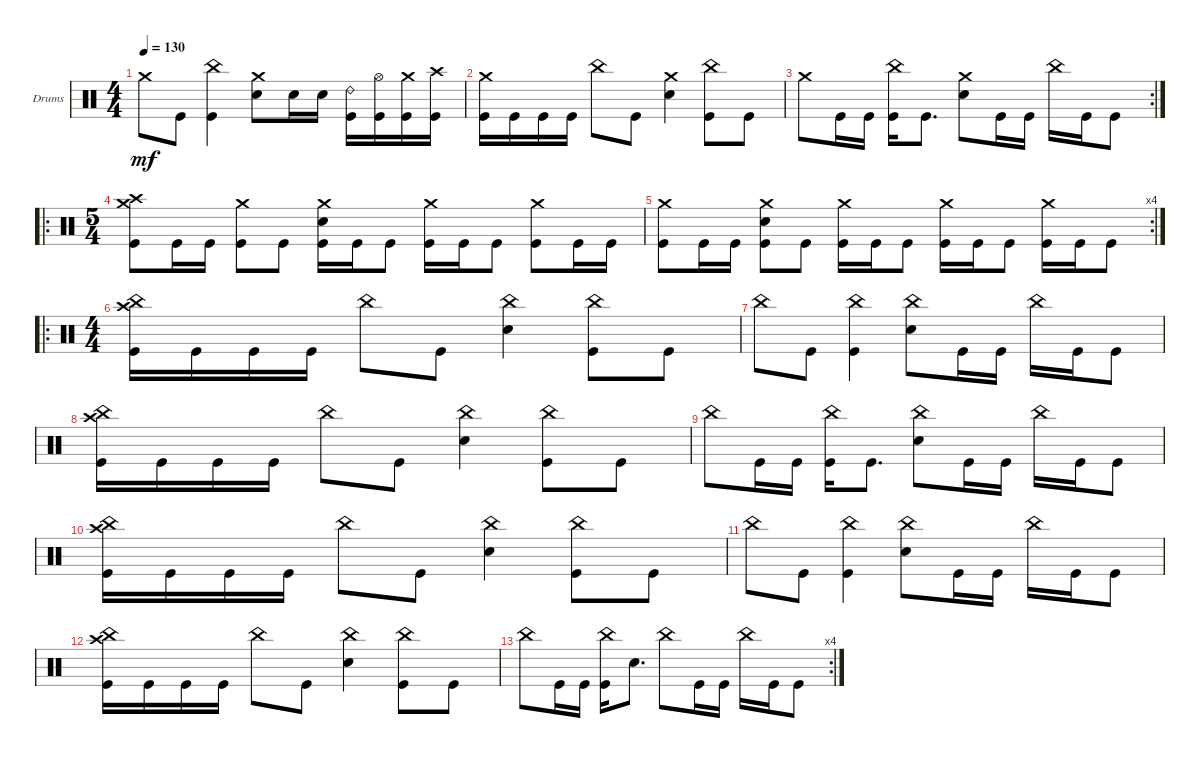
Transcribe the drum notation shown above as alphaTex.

\defaultSystemsLayout 4
\bracketExtendMode groupsimilarinstruments
\firstSystemTrackNameOrientation horizontal
\otherSystemsTrackNameOrientation horizontal
\track ("Drumkit" "Drums") {instrument percussion}
\staff {score}
\articulation defaults
\ts (4 4)
\tempo 130
\clef neutral
\ks c "Crash medium (hit)".8{dy mf} "Kick (hit)".8
("Kick (hit)" "China (hit)").4 ("Snare (hit) 2" "Crash medium (hit)").8 "Snare (hit) 2".16 "Snare (hit) 2".16 ("Ride (bell) 2" "Kick (hit)").16 ("Hi-Hat (open)" "Kick (hit)").16 ("Crash medium (hit)" "Kick (hit)").16 ("Crash high (hit)" "Kick (hit)").16 |
("Kick (hit)" "Crash medium (hit)").16 "Kick (hit)".16 "Kick (hit)".16 "Kick (hit)".16 "China (hit)".8 "Kick (hit)".8 ("Snare (hit) 2" "Crash medium (hit)").4 ("Kick (hit)" "China (hit)").8 "Kick (hit)".8 |
\rc 2 "Crash medium (hit)".8 "Kick (hit)".16 "Kick (hit)".16
("Kick (hit)" "China (hit)").16 "Kick (hit)".8{d} ("Crash medium (hit)" "Snare (hit) 2").8 "Kick (hit)".16 "Kick (hit)".16 "China (hit)".16 "Kick (hit)".16 "Kick (hit)".8 |
\ro
\ts (5 4)
("Kick (hit)" "Crash high (hit)" "Crash medium (hit)").8 "Kick (hit)".16 "Kick (hit)".16 ("Kick (hit)" "Crash medium (hit)").8 "Kick (hit)".8 ("Kick (hit)" "Crash medium (hit)" "Snare (hit) 2").16 "Kick (hit)".16 "Kick (hit)".8 ("Kick (hit)" "Crash medium (hit)").16 "Kick (hit)".16 "Kick (hit)".8 ("Kick (hit)" "Crash medium (hit)").8 "Kick (hit)".16 "Kick (hit)".16 |
\rc 4
("Kick (hit)" "Crash medium (hit)").8 "Kick (hit)".16 "Kick (hit)".16 ("Kick (hit)" "Crash medium (hit)" "Snare (hit) 2").8 "Kick (hit)".8 ("Kick (hit)" "Crash medium (hit)").16 "Kick (hit)".16 "Kick (hit)".8 ("Kick (hit)" "Crash medium (hit)").16 "Kick (hit)".16 "Kick (hit)".8 ("Kick (hit)" "Crash medium (hit)").16 "Kick (hit)".16 "Kick (hit)".8 |
\ro
\ts (4 4)
("China (hit)" "Kick (hit)" "Crash high (hit)").16 "Kick (hit)".16 "Kick (hit)".16 "Kick (hit)".16 "China (hit)".8 "Kick (hit)".8 ("China (hit)" "Snare (hit) 2").4 ("Kick (hit)" "China (hit)").8 "Kick (hit)".8 |
"China (hit)".8 "Kick (hit)".8 ("Kick (hit)" "China (hit)").4 ("China (hit)" "Snare (hit) 2").8 "Kick (hit)".16 "Kick (hit)".16 "China (hit)".16 "Kick (hit)".16 "Kick (hit)".8 |
("Kick (hit)" "China (hit)" "Crash high (hit)").16 "Kick (hit)".16 "Kick (hit)".16 "Kick (hit)".16 "China (hit)".8 "Kick (hit)".8 ("Snare (hit) 2" "China (hit)").4 ("China (hit)" "Kick (hit)").8 "Kick (hit)".8 |
"China (hit)".8 "Kick (hit)".16 "Kick (hit)".16 ("Kick (hit)" "China (hit)").16 "Kick (hit)".8{d} ("Snare (hit) 2" "China (hit)").8 "Kick (hit)".16 "Kick (hit)".16 "China (hit)".16 "Kick (hit)".16 "Kick (hit)".8 |
("China (hit)" "Kick (hit)" "Crash high (hit)").16 "Kick (hit)".16 "Kick (hit)".16 "Kick (hit)".16 "China (hit)".8 "Kick (hit)".8 ("China (hit)" "Snare (hit) 2").4 ("Kick (hit)" "China (hit)").8 "Kick (hit)".8 |
"China (hit)".8 "Kick (hit)".8 ("Kick (hit)" "China (hit)").4 ("China (hit)" "Snare (hit) 2").8 "Kick (hit)".16 "Kick (hit)".16 "China (hit)".16 "Kick (hit)".16 "Kick (hit)".8 |
("Kick (hit)" "China (hit)" "Crash high (hit)").16 "Kick (hit)".16 "Kick (hit)".16 "Kick (hit)".16 "China (hit)".8 "Kick (hit)".8 ("Snare (hit) 2" "China (hit)").4 ("China (hit)" "Kick (hit)").8 "Kick (hit)".8 |
\rc 4 "China (hit)".8 "Kick (hit)".16 "Kick (hit)".16
("Kick (hit)" "China (hit)").16 "Snare (hit) 2".8{d} "China (hit)".8 "Kick (hit)".16 "Kick (hit)".16 "China (hit)".16 "Kick (hit)".16 "Kick (hit)".8
